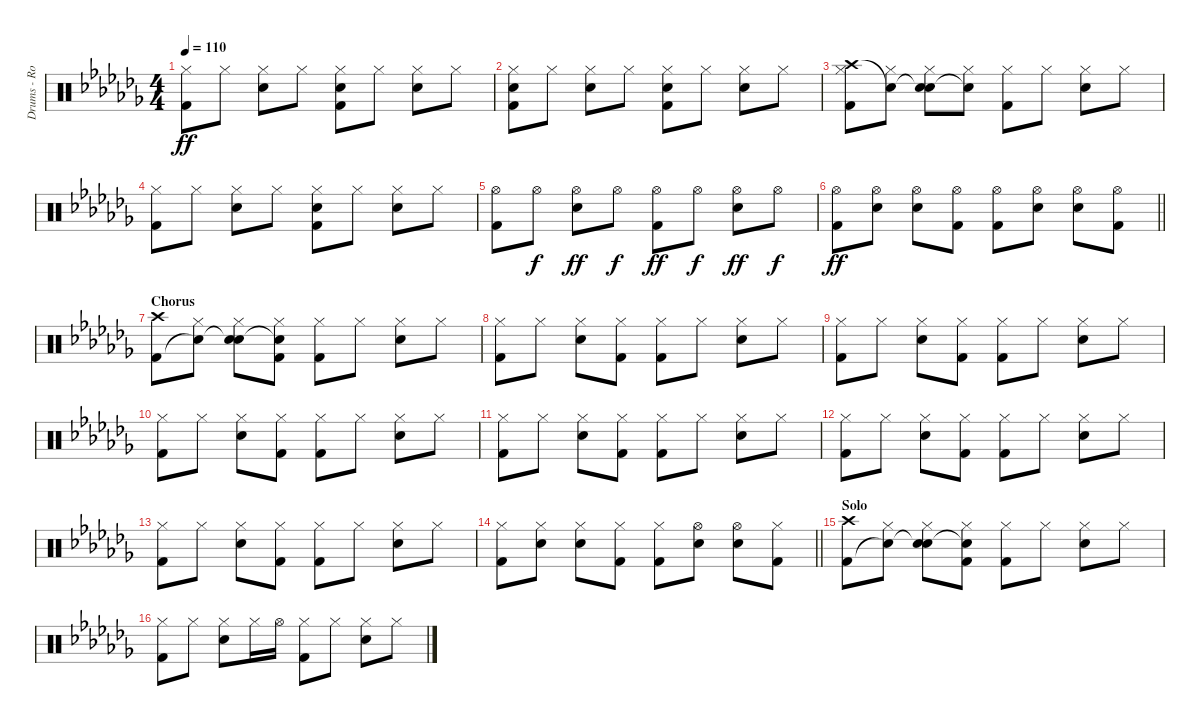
\track ("Drums - Rob Bourdon" "Drums - Ro") {instrument percussion}
\staff {score}
\articulation defaults
\ts (4 4)
\tempo 110
\clef neutral
\ks abminor
("Hi-Hat (closed)" "Kick (hit) 2").8{dy ff} "Hi-Hat (closed)".8 ("Hi-Hat (closed)" "Electric Snare (hit)").8 "Hi-Hat (closed)".8 ("Hi-Hat (closed)" "Metronome (bell)" "Kick (hit) 2").8 "Hi-Hat (closed)".8 ("Hi-Hat (closed)" "Electric Snare (hit)").8 "Hi-Hat (closed)".8 |
("Hi-Hat (closed)" "Metronome (bell)" "Kick (hit) 2").8 "Hi-Hat (closed)".8 ("Hi-Hat (closed)" "Electric Snare (hit)").8 "Hi-Hat (closed)".8 ("Hi-Hat (closed)" "Metronome (bell)" "Kick (hit) 2").8 "Hi-Hat (closed)".8 ("Hi-Hat (closed)" "Electric Snare (hit)").8 "Hi-Hat (closed)".8 |
("Hi-Hat (closed)" "Crash high (hit)" "Kick (hit) 2").8 ("Hi-Hat (closed)" "Snare (hit)"{t}).8 ("Hi-Hat (closed)" "Snare (hit)"{t} "Electric Snare (hit)").8 ("Hi-Hat (closed)" "Snare (hit)"{t}).8 ("Hi-Hat (closed)" "Kick (hit) 2").8 "Hi-Hat (closed)".8 ("Hi-Hat (closed)" "Electric Snare (hit)").8 "Hi-Hat (closed)".8 |
("Hi-Hat (closed)" "Kick (hit) 2").8 "Hi-Hat (closed)".8 ("Hi-Hat (closed)" "Electric Snare (hit)").8 "Hi-Hat (closed)".8 ("Hi-Hat (closed)" "Metronome (bell)" "Kick (hit) 2").8 "Hi-Hat (closed)".8 ("Hi-Hat (closed)" "Electric Snare (hit)").8 "Hi-Hat (closed)".8 |
("Hi-Hat (open)" "Kick (hit) 2").8 "Hi-Hat (open)".8{dy f} ("Hi-Hat (open)" "Electric Snare (hit)").8{dy ff} "Hi-Hat (open)".8{dy f} ("Hi-Hat (open)" "Kick (hit) 2").8{dy ff} "Hi-Hat (open)".8{dy f} ("Hi-Hat (open)" "Electric Snare (hit)").8{dy ff} "Hi-Hat (open)".8{dy f} |
\barLineRight lightlight
("Hi-Hat (open)" "Kick (hit) 2").8{dy ff} ("Hi-Hat (open)" "Electric Snare (hit)").8 ("Hi-Hat (open)" "Electric Snare (hit)").8 ("Hi-Hat (open)" "Kick (hit) 2").8 ("Hi-Hat (open)" "Kick (hit) 2").8 ("Hi-Hat (open)" "Electric Snare (hit)").8 ("Hi-Hat (open)" "Electric Snare (hit)").8 ("Hi-Hat (open)" "Kick (hit) 2").8 |
\section ("" "Chorus")
("Crash high (hit)" "Kick (hit) 2").8 ("Hi-Hat (closed)" "Snare (hit)"{t}).8 ("Hi-Hat (closed)" "Snare (hit)"{t} "Electric Snare (hit)").8 ("Hi-Hat (closed)" "Snare (hit)"{t} "Kick (hit) 2").8 ("Hi-Hat (closed)" "Kick (hit) 2").8 "Hi-Hat (closed)".8 ("Hi-Hat (closed)" "Electric Snare (hit)").8 "Hi-Hat (closed)".8 |
("Hi-Hat (closed)" "Kick (hit) 2").8 "Hi-Hat (closed)".8 ("Hi-Hat (closed)" "Electric Snare (hit)").8 ("Hi-Hat (closed)" "Kick (hit) 2").8 ("Hi-Hat (closed)" "Kick (hit) 2").8 "Hi-Hat (closed)".8 ("Hi-Hat (closed)" "Electric Snare (hit)").8 "Hi-Hat (closed)".8 |
("Hi-Hat (closed)" "Kick (hit) 2").8 "Hi-Hat (closed)".8 ("Hi-Hat (closed)" "Electric Snare (hit)").8 ("Hi-Hat (closed)" "Kick (hit) 2").8 ("Hi-Hat (closed)" "Kick (hit) 2").8 "Hi-Hat (closed)".8 ("Hi-Hat (closed)" "Electric Snare (hit)").8 "Hi-Hat (closed)".8 |
("Hi-Hat (closed)" "Kick (hit) 2").8 "Hi-Hat (closed)".8 ("Hi-Hat (closed)" "Electric Snare (hit)").8 ("Hi-Hat (closed)" "Kick (hit) 2").8 ("Hi-Hat (closed)" "Kick (hit) 2").8 "Hi-Hat (closed)".8 ("Hi-Hat (closed)" "Electric Snare (hit)").8 "Hi-Hat (closed)".8 |
("Hi-Hat (closed)" "Kick (hit) 2").8 "Hi-Hat (closed)".8 ("Hi-Hat (closed)" "Electric Snare (hit)").8 ("Hi-Hat (closed)" "Kick (hit) 2").8 ("Hi-Hat (closed)" "Kick (hit) 2").8 "Hi-Hat (closed)".8 ("Hi-Hat (closed)" "Electric Snare (hit)").8 "Hi-Hat (closed)".8 |
("Hi-Hat (closed)" "Kick (hit) 2").8 "Hi-Hat (closed)".8 ("Hi-Hat (closed)" "Electric Snare (hit)").8 ("Hi-Hat (closed)" "Kick (hit) 2").8 ("Hi-Hat (closed)" "Kick (hit) 2").8 "Hi-Hat (closed)".8 ("Hi-Hat (closed)" "Electric Snare (hit)").8 "Hi-Hat (closed)".8 |
("Hi-Hat (closed)" "Kick (hit) 2").8 "Hi-Hat (closed)".8 ("Hi-Hat (closed)" "Electric Snare (hit)").8 ("Hi-Hat (closed)" "Kick (hit) 2").8 ("Hi-Hat (closed)" "Kick (hit) 2").8 "Hi-Hat (closed)".8 ("Hi-Hat (closed)" "Electric Snare (hit)").8 "Hi-Hat (closed)".8 |
\barLineRight lightlight
("Hi-Hat (closed)" "Kick (hit) 2").8 ("Hi-Hat (closed)" "Electric Snare (hit)").8 ("Hi-Hat (closed)" "Electric Snare (hit)").8 ("Hi-Hat (closed)" "Kick (hit) 2").8 ("Hi-Hat (closed)" "Kick (hit) 2").8 ("Hi-Hat (open)" "Electric Snare (hit)").8 ("Hi-Hat (open)" "Electric Snare (hit)").8 ("Hi-Hat (closed)" "Kick (hit) 2").8 |
\section ("" "Solo")
("Crash high (hit)" "Kick (hit) 2").8 ("Hi-Hat (closed)" "Snare (hit)"{t}).8 ("Hi-Hat (closed)" "Snare (hit)"{t} "Electric Snare (hit)").8 ("Hi-Hat (closed)" "Snare (hit)"{t} "Kick (hit) 2").8 ("Hi-Hat (closed)" "Kick (hit) 2").8 "Hi-Hat (closed)".8 ("Hi-Hat (closed)" "Electric Snare (hit)").8 "Hi-Hat (closed)".8 |
("Hi-Hat (closed)" "Kick (hit) 2").8 "Hi-Hat (closed)".8 ("Hi-Hat (closed)" "Electric Snare (hit)").8 "Hi-Hat (closed)".16 "Hi-Hat (open)".16 ("Hi-Hat (closed)" "Kick (hit) 2").8 "Hi-Hat (closed)".8 ("Hi-Hat (closed)" "Electric Snare (hit)").8 "Hi-Hat (closed)".8
